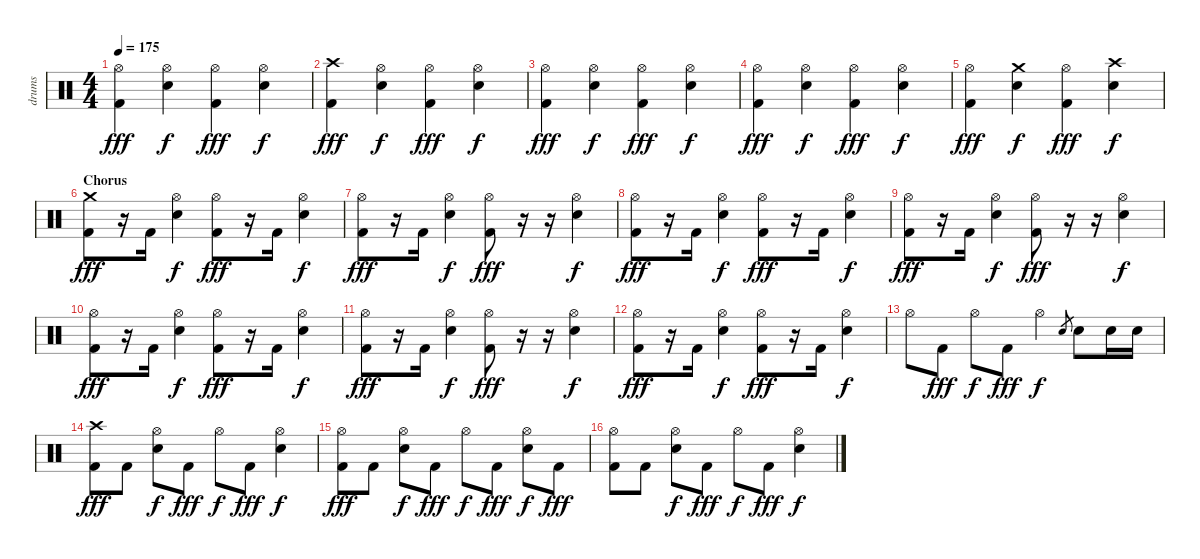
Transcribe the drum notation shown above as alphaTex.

\track ("drums" "drums") {instrument percussion}
\staff {score}
\articulation defaults
\ts (4 4)
\tempo 175
\clef neutral
\ks c
("Hi-Hat (open)" "Kick (hit) 2").4{dy fff} ("Hi-Hat (open)" "Snare (hit) 2").4{dy f} ("Hi-Hat (open)" "Kick (hit) 2").4{dy fff} ("Hi-Hat (open)" "Snare (hit) 2").4{dy f} |
("Crash high (hit)" "Kick (hit) 2").4{dy fff} ("Hi-Hat (open)" "Snare (hit) 2").4{dy f} ("Hi-Hat (open)" "Kick (hit) 2").4{dy fff} ("Hi-Hat (open)" "Snare (hit) 2").4{dy f} |
("Hi-Hat (open)" "Kick (hit) 2").4{dy fff} ("Hi-Hat (open)" "Snare (hit) 2").4{dy f} ("Hi-Hat (open)" "Kick (hit) 2").4{dy fff} ("Hi-Hat (open)" "Snare (hit) 2").4{dy f} |
("Hi-Hat (open)" "Kick (hit) 2").4{dy fff} ("Hi-Hat (open)" "Snare (hit) 2").4{dy f} ("Hi-Hat (open)" "Kick (hit) 2").4{dy fff} ("Hi-Hat (open)" "Snare (hit) 2").4{dy f} |
("Hi-Hat (open)" "Kick (hit) 2").4{dy fff} ("Crash medium (hit)" "Snare (hit) 2").4{dy f} ("Hi-Hat (open)" "Kick (hit) 2").4{dy fff} ("Crash high (hit)" "Snare (hit) 2").4{dy f} |
\section ("" "Chorus")
("Crash medium (hit)" "Kick (hit) 2").8{dy fff} r.16 "Kick (hit) 2".16 ("Hi-Hat (open)" "Snare (hit) 2").4{dy f} ("Hi-Hat (open)" "Kick (hit) 2").8{dy fff} r.16 "Kick (hit) 2".16 ("Hi-Hat (open)" "Snare (hit) 2").4{dy f} |
("Hi-Hat (open)" "Kick (hit) 2").8{dy fff} r.16 "Kick (hit) 2".16 ("Hi-Hat (open)" "Snare (hit) 2").4{dy f} ("Hi-Hat (open)" "Kick (hit) 2").8{dy fff} r.16 r.16 ("Hi-Hat (open)" "Snare (hit) 2").4{dy f} |
("Hi-Hat (open)" "Kick (hit) 2").8{dy fff} r.16 "Kick (hit) 2".16 ("Hi-Hat (open)" "Snare (hit) 2").4{dy f} ("Hi-Hat (open)" "Kick (hit) 2").8{dy fff} r.16 "Kick (hit) 2".16 ("Hi-Hat (open)" "Snare (hit) 2").4{dy f} |
("Hi-Hat (open)" "Kick (hit) 2").8{dy fff} r.16 "Kick (hit) 2".16 ("Hi-Hat (open)" "Snare (hit) 2").4{dy f} ("Hi-Hat (open)" "Kick (hit) 2").8{dy fff} r.16 r.16 ("Hi-Hat (open)" "Snare (hit) 2").4{dy f} |
("Hi-Hat (open)" "Kick (hit) 2").8{dy fff} r.16 "Kick (hit) 2".16 ("Hi-Hat (open)" "Snare (hit) 2").4{dy f} ("Hi-Hat (open)" "Kick (hit) 2").8{dy fff} r.16 "Kick (hit) 2".16 ("Hi-Hat (open)" "Snare (hit) 2").4{dy f} |
("Hi-Hat (open)" "Kick (hit) 2").8{dy fff} r.16 "Kick (hit) 2".16 ("Hi-Hat (open)" "Snare (hit) 2").4{dy f} ("Hi-Hat (open)" "Kick (hit) 2").8{dy fff} r.16 r.16 ("Hi-Hat (open)" "Snare (hit) 2").4{dy f} |
("Hi-Hat (open)" "Kick (hit) 2").8{dy fff} r.16 "Kick (hit) 2".16 ("Hi-Hat (open)" "Snare (hit) 2").4{dy f} ("Hi-Hat (open)" "Kick (hit) 2").8{dy fff} r.16 "Kick (hit) 2".16 ("Hi-Hat (open)" "Snare (hit) 2").4{dy f} |
"Hi-Hat (open)".8 "Kick (hit) 2".8{dy fff} "Hi-Hat (open)".8{dy f} "Kick (hit) 2".8{dy fff} "Hi-Hat (open)".4{dy f} "Snare (hit) 2".8{gr} "Snare (hit) 2".8 "Snare (hit) 2".16 "Snare (hit) 2".16 |
("Crash high (hit)" "Kick (hit) 2").8{dy fff} "Kick (hit) 2".8 ("Hi-Hat (open)" "Snare (hit) 2").8{dy f} "Kick (hit) 2".8{dy fff} "Hi-Hat (open)".8{dy f} "Kick (hit) 2".8{dy fff} ("Hi-Hat (open)" "Snare (hit) 2").4{dy f} |
("Hi-Hat (open)" "Kick (hit) 2").8{dy fff} "Kick (hit) 2".8 ("Hi-Hat (open)" "Snare (hit) 2").8{dy f} "Kick (hit) 2".8{dy fff} "Hi-Hat (open)".8{dy f} "Kick (hit) 2".8{dy fff} ("Hi-Hat (open)" "Snare (hit) 2").8{dy f} "Kick (hit) 2".8{dy fff} |
("Hi-Hat (open)" "Kick (hit) 2").8 "Kick (hit) 2".8 ("Hi-Hat (open)" "Snare (hit) 2").8{dy f} "Kick (hit) 2".8{dy fff} "Hi-Hat (open)".8{dy f} "Kick (hit) 2".8{dy fff} ("Hi-Hat (open)" "Snare (hit) 2").4{dy f}
